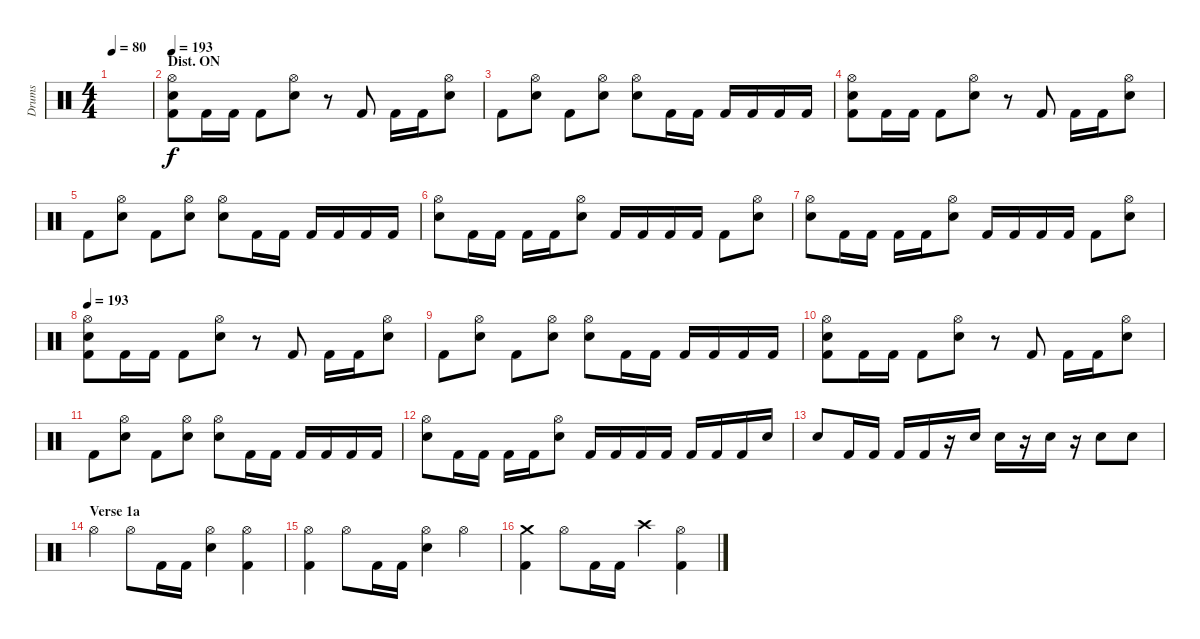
\track ("Drums" "Drums") {instrument percussion}
\staff {score}
\articulation defaults
\ts (4 4)
\tempo 80
\clef neutral
\ks c
|
\section ("" "Dist. ON")
\tempo 193
("Hi-Hat (open)" "Snare (hit) 2" "Kick (hit) 2").8 "Kick (hit) 2".16 "Kick (hit) 2".16 "Kick (hit) 2".8 ("Hi-Hat (open)" "Snare (hit) 2").8 r.8 "Kick (hit) 2".8 "Kick (hit) 2".16 "Kick (hit) 2".16 ("Hi-Hat (open)" "Snare (hit) 2").8 |
"Kick (hit) 2".8 ("Hi-Hat (open)" "Snare (hit) 2").8 "Kick (hit) 2".8 ("Hi-Hat (open)" "Snare (hit) 2").8 ("Hi-Hat (open)" "Snare (hit) 2").8 "Kick (hit) 2".16 "Kick (hit) 2".16 "Kick (hit) 2".16 "Kick (hit) 2".16 "Kick (hit) 2".16 "Kick (hit) 2".16 |
("Hi-Hat (open)" "Snare (hit) 2" "Kick (hit) 2").8 "Kick (hit) 2".16 "Kick (hit) 2".16 "Kick (hit) 2".8 ("Hi-Hat (open)" "Snare (hit) 2").8 r.8 "Kick (hit) 2".8 "Kick (hit) 2".16 "Kick (hit) 2".16 ("Hi-Hat (open)" "Snare (hit) 2").8 |
"Kick (hit) 2".8 ("Hi-Hat (open)" "Snare (hit) 2").8 "Kick (hit) 2".8 ("Hi-Hat (open)" "Snare (hit) 2").8 ("Hi-Hat (open)" "Snare (hit) 2").8 "Kick (hit) 2".16 "Kick (hit) 2".16 "Kick (hit) 2".16 "Kick (hit) 2".16 "Kick (hit) 2".16 "Kick (hit) 2".16 |
("Hi-Hat (open)" "Snare (hit) 2").8 "Kick (hit) 2".16 "Kick (hit) 2".16 "Kick (hit) 2".16 "Kick (hit) 2".16 ("Hi-Hat (open)" "Snare (hit) 2").8 "Kick (hit) 2".16 "Kick (hit) 2".16 "Kick (hit) 2".16 "Kick (hit) 2".16 "Kick (hit) 2".8 ("Hi-Hat (open)" "Snare (hit) 2").8 |
("Hi-Hat (open)" "Snare (hit) 2").8 "Kick (hit) 2".16 "Kick (hit) 2".16 "Kick (hit) 2".16 "Kick (hit) 2".16 ("Hi-Hat (open)" "Snare (hit) 2").8 "Kick (hit) 2".16 "Kick (hit) 2".16 "Kick (hit) 2".16 "Kick (hit) 2".16 "Kick (hit) 2".8 ("Hi-Hat (open)" "Snare (hit) 2").8 |
\tempo 193
("Hi-Hat (open)" "Snare (hit) 2" "Kick (hit) 2").8 "Kick (hit) 2".16 "Kick (hit) 2".16 "Kick (hit) 2".8 ("Hi-Hat (open)" "Snare (hit) 2").8 r.8 "Kick (hit) 2".8 "Kick (hit) 2".16 "Kick (hit) 2".16 ("Hi-Hat (open)" "Snare (hit) 2").8 |
"Kick (hit) 2".8 ("Hi-Hat (open)" "Snare (hit) 2").8 "Kick (hit) 2".8 ("Hi-Hat (open)" "Snare (hit) 2").8 ("Hi-Hat (open)" "Snare (hit) 2").8 "Kick (hit) 2".16 "Kick (hit) 2".16 "Kick (hit) 2".16 "Kick (hit) 2".16 "Kick (hit) 2".16 "Kick (hit) 2".16 |
("Hi-Hat (open)" "Snare (hit) 2" "Kick (hit) 2").8 "Kick (hit) 2".16 "Kick (hit) 2".16 "Kick (hit) 2".8 ("Hi-Hat (open)" "Snare (hit) 2").8 r.8 "Kick (hit) 2".8 "Kick (hit) 2".16 "Kick (hit) 2".16 ("Hi-Hat (open)" "Snare (hit) 2").8 |
"Kick (hit) 2".8 ("Hi-Hat (open)" "Snare (hit) 2").8 "Kick (hit) 2".8 ("Hi-Hat (open)" "Snare (hit) 2").8 ("Hi-Hat (open)" "Snare (hit) 2").8 "Kick (hit) 2".16 "Kick (hit) 2".16 "Kick (hit) 2".16 "Kick (hit) 2".16 "Kick (hit) 2".16 "Kick (hit) 2".16 |
("Hi-Hat (open)" "Snare (hit) 2").8 "Kick (hit) 2".16 "Kick (hit) 2".16 "Kick (hit) 2".16 "Kick (hit) 2".16 ("Hi-Hat (open)" "Snare (hit) 2").8 "Kick (hit) 2".16 "Kick (hit) 2".16 "Kick (hit) 2".16 "Kick (hit) 2".16 "Kick (hit) 2".16 "Kick (hit) 2".16 "Kick (hit) 2".16 "Snare (hit) 2".16 |
"Snare (hit) 2".8 "Kick (hit) 2".16 "Kick (hit) 2".16 "Kick (hit) 2".16 "Kick (hit) 2".16 r.16 "Snare (hit) 2".16 "Snare (hit) 2".16 r.16 "Snare (hit) 2".16 r.16 "Snare (hit) 2".8 "Snare (hit) 2".8 |
\section ("" "Verse 1a")
"Hi-Hat (open)".4 "Hi-Hat (open)".8 "Kick (hit) 2".16 "Kick (hit) 2".16 ("Hi-Hat (open)" "Snare (hit) 2").4 ("Hi-Hat (open)" "Kick (hit) 2").4 |
("Hi-Hat (open)" "Kick (hit) 2").4 "Hi-Hat (open)".8 "Kick (hit) 2".16 "Kick (hit) 2".16 ("Hi-Hat (open)" "Snare (hit) 2").4 "Hi-Hat (open)".4 |
("Crash medium (hit)" "Kick (hit) 2").4 "Hi-Hat (open)".8 "Kick (hit) 2".16 "Kick (hit) 2".16 "Crash high (hit)".4 ("Hi-Hat (open)" "Kick (hit) 2").4
